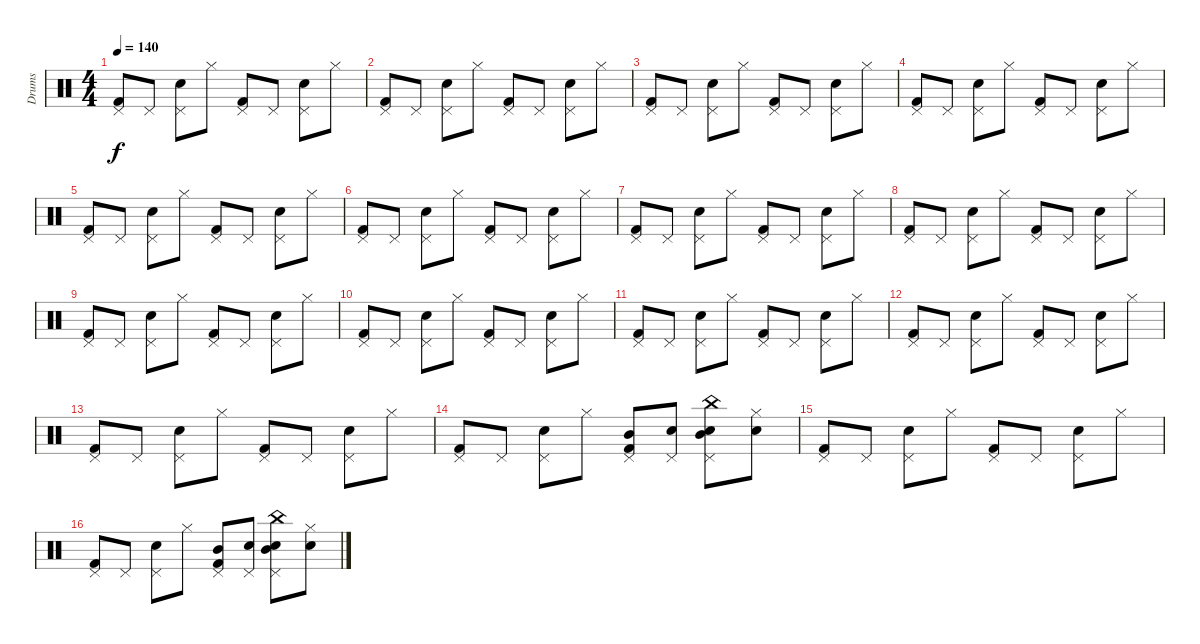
\track ("Drums" "Drums") {instrument percussion}
\staff {score}
\articulation defaults
\ts (4 4)
\tempo 140
\clef neutral
\ks c
("Kick (hit) 2" "Pedal Hi-Hat (hit)").8{dy f} "Pedal Hi-Hat (hit)".8 ("Snare (hit) 2" "Pedal Hi-Hat (hit)").8 "Hi-Hat (closed)".8 ("Kick (hit) 2" "Pedal Hi-Hat (hit)").8 "Pedal Hi-Hat (hit)".8 ("Snare (hit) 2" "Pedal Hi-Hat (hit)").8 "Hi-Hat (closed)".8 |
("Kick (hit) 2" "Pedal Hi-Hat (hit)").8 "Pedal Hi-Hat (hit)".8 ("Snare (hit) 2" "Pedal Hi-Hat (hit)").8 "Hi-Hat (closed)".8 ("Kick (hit) 2" "Pedal Hi-Hat (hit)").8 "Pedal Hi-Hat (hit)".8 ("Snare (hit) 2" "Pedal Hi-Hat (hit)").8 "Hi-Hat (closed)".8 |
("Kick (hit) 2" "Pedal Hi-Hat (hit)").8 "Pedal Hi-Hat (hit)".8 ("Snare (hit) 2" "Pedal Hi-Hat (hit)").8 "Hi-Hat (closed)".8 ("Kick (hit) 2" "Pedal Hi-Hat (hit)").8 "Pedal Hi-Hat (hit)".8 ("Snare (hit) 2" "Pedal Hi-Hat (hit)").8 "Hi-Hat (closed)".8 |
("Kick (hit) 2" "Pedal Hi-Hat (hit)").8 "Pedal Hi-Hat (hit)".8 ("Snare (hit) 2" "Pedal Hi-Hat (hit)").8 "Hi-Hat (closed)".8 ("Kick (hit) 2" "Pedal Hi-Hat (hit)").8 "Pedal Hi-Hat (hit)".8 ("Snare (hit) 2" "Pedal Hi-Hat (hit)").8 "Hi-Hat (closed)".8 |
("Kick (hit) 2" "Pedal Hi-Hat (hit)").8 "Pedal Hi-Hat (hit)".8 ("Snare (hit) 2" "Pedal Hi-Hat (hit)").8 "Hi-Hat (closed)".8 ("Kick (hit) 2" "Pedal Hi-Hat (hit)").8 "Pedal Hi-Hat (hit)".8 ("Snare (hit) 2" "Pedal Hi-Hat (hit)").8 "Hi-Hat (closed)".8 |
("Kick (hit) 2" "Pedal Hi-Hat (hit)").8 "Pedal Hi-Hat (hit)".8 ("Snare (hit) 2" "Pedal Hi-Hat (hit)").8 "Hi-Hat (closed)".8 ("Kick (hit) 2" "Pedal Hi-Hat (hit)").8 "Pedal Hi-Hat (hit)".8 ("Snare (hit) 2" "Pedal Hi-Hat (hit)").8 "Hi-Hat (closed)".8 |
("Kick (hit) 2" "Pedal Hi-Hat (hit)").8 "Pedal Hi-Hat (hit)".8 ("Snare (hit) 2" "Pedal Hi-Hat (hit)").8 "Hi-Hat (closed)".8 ("Kick (hit) 2" "Pedal Hi-Hat (hit)").8 "Pedal Hi-Hat (hit)".8 ("Snare (hit) 2" "Pedal Hi-Hat (hit)").8 "Hi-Hat (closed)".8 |
("Kick (hit) 2" "Pedal Hi-Hat (hit)").8 "Pedal Hi-Hat (hit)".8 ("Snare (hit) 2" "Pedal Hi-Hat (hit)").8 "Hi-Hat (closed)".8 ("Kick (hit) 2" "Pedal Hi-Hat (hit)").8 "Pedal Hi-Hat (hit)".8 ("Snare (hit) 2" "Pedal Hi-Hat (hit)").8 "Hi-Hat (closed)".8 |
("Kick (hit) 2" "Pedal Hi-Hat (hit)").8 "Pedal Hi-Hat (hit)".8 ("Snare (hit) 2" "Pedal Hi-Hat (hit)").8 "Hi-Hat (closed)".8 ("Kick (hit) 2" "Pedal Hi-Hat (hit)").8 "Pedal Hi-Hat (hit)".8 ("Snare (hit) 2" "Pedal Hi-Hat (hit)").8 "Hi-Hat (closed)".8 |
("Kick (hit) 2" "Pedal Hi-Hat (hit)").8 "Pedal Hi-Hat (hit)".8 ("Snare (hit) 2" "Pedal Hi-Hat (hit)").8 "Hi-Hat (closed)".8 ("Kick (hit) 2" "Pedal Hi-Hat (hit)").8 "Pedal Hi-Hat (hit)".8 ("Snare (hit) 2" "Pedal Hi-Hat (hit)").8 "Hi-Hat (closed)".8 |
("Kick (hit) 2" "Pedal Hi-Hat (hit)").8 "Pedal Hi-Hat (hit)".8 ("Snare (hit) 2" "Pedal Hi-Hat (hit)").8 "Hi-Hat (closed)".8 ("Kick (hit) 2" "Pedal Hi-Hat (hit)").8 "Pedal Hi-Hat (hit)".8 ("Snare (hit) 2" "Pedal Hi-Hat (hit)").8 "Hi-Hat (closed)".8 |
("Kick (hit) 2" "Pedal Hi-Hat (hit)").8 "Pedal Hi-Hat (hit)".8 ("Snare (hit) 2" "Pedal Hi-Hat (hit)").8 "Hi-Hat (closed)".8 ("Kick (hit) 2" "Pedal Hi-Hat (hit)").8 "Pedal Hi-Hat (hit)".8 ("Snare (hit) 2" "Pedal Hi-Hat (hit)").8 "Hi-Hat (closed)".8 |
("Kick (hit) 2" "Pedal Hi-Hat (hit)").8 "Pedal Hi-Hat (hit)".8 ("Snare (hit) 2" "Pedal Hi-Hat (hit)").8 "Hi-Hat (closed)".8 ("Kick (hit) 2" "Pedal Hi-Hat (hit)").8 "Pedal Hi-Hat (hit)".8 ("Snare (hit) 2" "Pedal Hi-Hat (hit)").8 "Hi-Hat (closed)".8 |
("Kick (hit) 2" "Pedal Hi-Hat (hit)").8 "Pedal Hi-Hat (hit)".8 ("Snare (hit) 2" "Pedal Hi-Hat (hit)").8 "Hi-Hat (closed)".8 ("Kick (hit) 2" "Mid Tom (hit)" "Pedal Hi-Hat (hit)").8 ("Hand Clap (hit)" "Pedal Hi-Hat (hit)").8 ("Snare (hit) 2" "China (hit)" "Mid Tom (hit)" "Pedal Hi-Hat (hit)").8 ("Hand Clap (hit)" "Hi-Hat (closed)").8 |
("Kick (hit) 2" "Pedal Hi-Hat (hit)").8 "Pedal Hi-Hat (hit)".8 ("Snare (hit) 2" "Pedal Hi-Hat (hit)").8 "Hi-Hat (closed)".8 ("Kick (hit) 2" "Pedal Hi-Hat (hit)").8 "Pedal Hi-Hat (hit)".8 ("Snare (hit) 2" "Pedal Hi-Hat (hit)").8 "Hi-Hat (closed)".8 |
("Kick (hit) 2" "Pedal Hi-Hat (hit)").8 "Pedal Hi-Hat (hit)".8 ("Snare (hit) 2" "Pedal Hi-Hat (hit)").8 "Hi-Hat (closed)".8 ("Kick (hit) 2" "Mid Tom (hit)" "Pedal Hi-Hat (hit)").8 ("Hand Clap (hit)" "Pedal Hi-Hat (hit)").8 ("Snare (hit) 2" "China (hit)" "Mid Tom (hit)" "Pedal Hi-Hat (hit)").8 ("Hand Clap (hit)" "Hi-Hat (closed)").8
